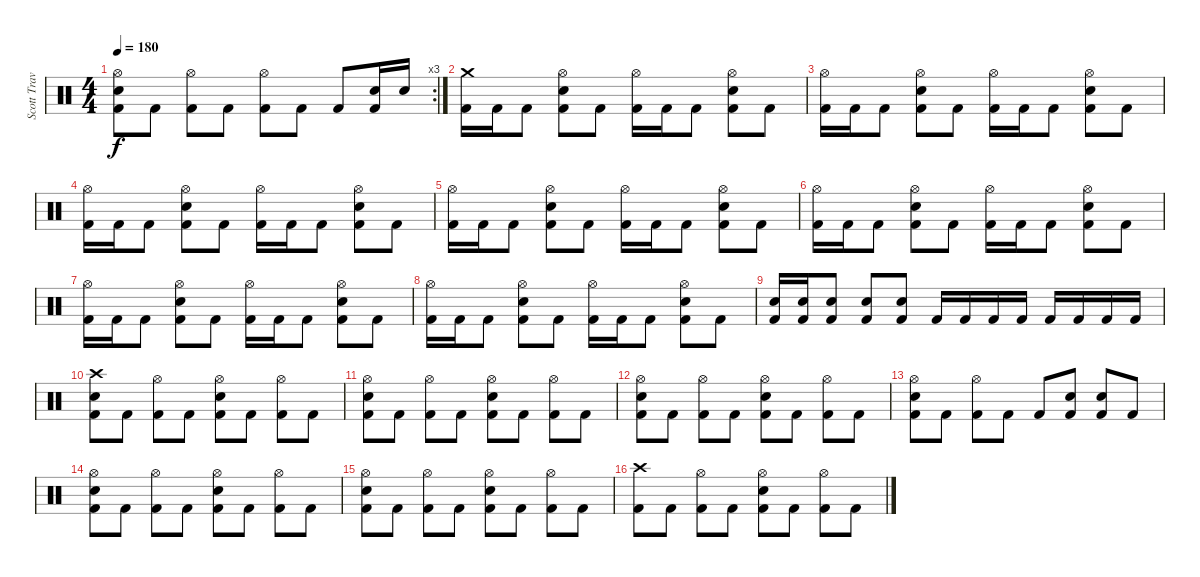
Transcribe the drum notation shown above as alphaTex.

\track ("Scott Travis" "Scott Trav") {instrument percussion}
\staff {score}
\articulation defaults
\rc 3
\ts (4 4)
\tempo 180
\clef neutral
\ks c
("Hi-Hat (open)" "Snare (hit) 2" "Kick (hit) 2").8{dy f} "Kick (hit) 2".8 ("Hi-Hat (open)" "Kick (hit) 2").8 "Kick (hit) 2".8 ("Hi-Hat (open)" "Kick (hit) 2").8 "Kick (hit) 2".8 "Kick (hit) 2".8 ("Snare (hit) 2" "Kick (hit) 2").16 "Snare (hit) 2".16 |
("Crash medium (hit)" "Kick (hit) 2").16 "Kick (hit) 2".16 "Kick (hit) 2".8 ("Hi-Hat (open)" "Snare (hit) 2" "Kick (hit) 2").8 "Kick (hit) 2".8 ("Hi-Hat (open)" "Kick (hit) 2").16 "Kick (hit) 2".16 "Kick (hit) 2".8 ("Hi-Hat (open)" "Snare (hit) 2" "Kick (hit) 2").8 "Kick (hit) 2".8 |
("Hi-Hat (open)" "Kick (hit) 2").16 "Kick (hit) 2".16 "Kick (hit) 2".8 ("Hi-Hat (open)" "Snare (hit) 2" "Kick (hit) 2").8 "Kick (hit) 2".8 ("Hi-Hat (open)" "Kick (hit) 2").16 "Kick (hit) 2".16 "Kick (hit) 2".8 ("Hi-Hat (open)" "Snare (hit) 2" "Kick (hit) 2").8 "Kick (hit) 2".8 |
("Hi-Hat (open)" "Kick (hit) 2").16 "Kick (hit) 2".16 "Kick (hit) 2".8 ("Hi-Hat (open)" "Snare (hit) 2" "Kick (hit) 2").8 "Kick (hit) 2".8 ("Hi-Hat (open)" "Kick (hit) 2").16 "Kick (hit) 2".16 "Kick (hit) 2".8 ("Hi-Hat (open)" "Snare (hit) 2" "Kick (hit) 2").8 "Kick (hit) 2".8 |
("Hi-Hat (open)" "Kick (hit) 2").16 "Kick (hit) 2".16 "Kick (hit) 2".8 ("Hi-Hat (open)" "Snare (hit) 2" "Kick (hit) 2").8 "Kick (hit) 2".8 ("Hi-Hat (open)" "Kick (hit) 2").16 "Kick (hit) 2".16 "Kick (hit) 2".8 ("Hi-Hat (open)" "Snare (hit) 2" "Kick (hit) 2").8 "Kick (hit) 2".8 |
("Hi-Hat (open)" "Kick (hit) 2").16 "Kick (hit) 2".16 "Kick (hit) 2".8 ("Hi-Hat (open)" "Snare (hit) 2" "Kick (hit) 2").8 "Kick (hit) 2".8 ("Hi-Hat (open)" "Kick (hit) 2").16 "Kick (hit) 2".16 "Kick (hit) 2".8 ("Hi-Hat (open)" "Snare (hit) 2" "Kick (hit) 2").8 "Kick (hit) 2".8 |
("Hi-Hat (open)" "Kick (hit) 2").16 "Kick (hit) 2".16 "Kick (hit) 2".8 ("Hi-Hat (open)" "Snare (hit) 2" "Kick (hit) 2").8 "Kick (hit) 2".8 ("Hi-Hat (open)" "Kick (hit) 2").16 "Kick (hit) 2".16 "Kick (hit) 2".8 ("Hi-Hat (open)" "Snare (hit) 2" "Kick (hit) 2").8 "Kick (hit) 2".8 |
("Hi-Hat (open)" "Kick (hit) 2").16 "Kick (hit) 2".16 "Kick (hit) 2".8 ("Hi-Hat (open)" "Snare (hit) 2" "Kick (hit) 2").8 "Kick (hit) 2".8 ("Hi-Hat (open)" "Kick (hit) 2").16 "Kick (hit) 2".16 "Kick (hit) 2".8 ("Hi-Hat (open)" "Snare (hit) 2" "Kick (hit) 2").8 "Kick (hit) 2".8 |
("Snare (hit) 2" "Kick (hit) 2").16 ("Snare (hit) 2" "Kick (hit) 2").16 ("Snare (hit) 2" "Kick (hit) 2").8 ("Snare (hit) 2" "Kick (hit) 2").8 ("Snare (hit) 2" "Kick (hit) 2").8 "Kick (hit) 2".16 "Kick (hit) 2".16 "Kick (hit) 2".16 "Kick (hit) 2".16 "Kick (hit) 2".16 "Kick (hit) 2".16 "Kick (hit) 2".16 "Kick (hit) 2".16 |
("Crash high (hit)" "Snare (hit) 2" "Kick (hit) 2").8 "Kick (hit) 2".8 ("Hi-Hat (open)" "Kick (hit) 2").8 "Kick (hit) 2".8 ("Hi-Hat (open)" "Snare (hit) 2" "Kick (hit) 2").8 "Kick (hit) 2".8 ("Hi-Hat (open)" "Kick (hit) 2").8 "Kick (hit) 2".8 |
("Hi-Hat (open)" "Snare (hit) 2" "Kick (hit) 2").8 "Kick (hit) 2".8 ("Hi-Hat (open)" "Kick (hit) 2").8 "Kick (hit) 2".8 ("Hi-Hat (open)" "Snare (hit) 2" "Kick (hit) 2").8 "Kick (hit) 2".8 ("Hi-Hat (open)" "Kick (hit) 2").8 "Kick (hit) 2".8 |
("Hi-Hat (open)" "Snare (hit) 2" "Kick (hit) 2").8 "Kick (hit) 2".8 ("Hi-Hat (open)" "Kick (hit) 2").8 "Kick (hit) 2".8 ("Hi-Hat (open)" "Snare (hit) 2" "Kick (hit) 2").8 "Kick (hit) 2".8 ("Hi-Hat (open)" "Kick (hit) 2").8 "Kick (hit) 2".8 |
("Hi-Hat (open)" "Snare (hit) 2" "Kick (hit) 2").8 "Kick (hit) 2".8 ("Hi-Hat (open)" "Kick (hit) 2").8 "Kick (hit) 2".8 "Kick (hit) 2".8 ("Snare (hit) 2" "Kick (hit) 2").8 ("Snare (hit) 2" "Kick (hit) 2").8 "Kick (hit) 2".8 |
("Hi-Hat (open)" "Snare (hit) 2" "Kick (hit) 2").8 "Kick (hit) 2".8 ("Hi-Hat (open)" "Kick (hit) 2").8 "Kick (hit) 2".8 ("Hi-Hat (open)" "Snare (hit) 2" "Kick (hit) 2").8 "Kick (hit) 2".8 ("Hi-Hat (open)" "Kick (hit) 2").8 "Kick (hit) 2".8 |
("Hi-Hat (open)" "Snare (hit) 2" "Kick (hit) 2").8 "Kick (hit) 2".8 ("Hi-Hat (open)" "Kick (hit) 2").8 "Kick (hit) 2".8 ("Hi-Hat (open)" "Snare (hit) 2" "Kick (hit) 2").8 "Kick (hit) 2".8 ("Hi-Hat (open)" "Kick (hit) 2").8 "Kick (hit) 2".8 |
("Crash high (hit)" "Kick (hit) 2").8 "Kick (hit) 2".8 ("Hi-Hat (open)" "Kick (hit) 2").8 "Kick (hit) 2".8 ("Hi-Hat (open)" "Snare (hit) 2" "Kick (hit) 2").8 "Kick (hit) 2".8 ("Hi-Hat (open)" "Kick (hit) 2").8 "Kick (hit) 2".8
